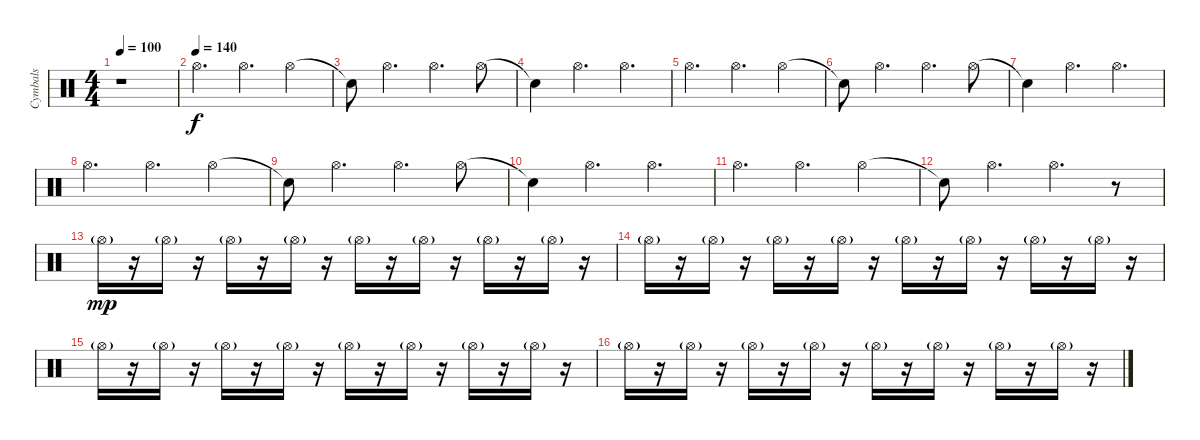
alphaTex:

\track ("Cymbals" "Cymbals") {instrument percussion}
\staff {score}
\articulation defaults
\ts (4 4)
\tempo 100
\clef neutral
\ks c
r.1{dy f} |
\tempo (140)
"Hi-Hat (open)".4{d} "Hi-Hat (open)".4{d} "Hi-Hat (open)".4 |
"Snare (hit)"{t}.8 "Hi-Hat (open)".4{d} "Hi-Hat (open)".4{d} "Hi-Hat (open)".8 |
"Snare (hit)"{t}.4 "Hi-Hat (open)".4{d} "Hi-Hat (open)".4{d} |
"Hi-Hat (open)".4{d} "Hi-Hat (open)".4{d} "Hi-Hat (open)".4 |
"Snare (hit)"{t}.8 "Hi-Hat (open)".4{d} "Hi-Hat (open)".4{d} "Hi-Hat (open)".8 |
"Snare (hit)"{t}.4 "Hi-Hat (open)".4{d} "Hi-Hat (open)".4{d} |
"Hi-Hat (open)".4{d} "Hi-Hat (open)".4{d} "Hi-Hat (open)".4 |
"Snare (hit)"{t}.8 "Hi-Hat (open)".4{d} "Hi-Hat (open)".4{d} "Hi-Hat (open)".8 |
"Snare (hit)"{t}.4 "Hi-Hat (open)".4{d} "Hi-Hat (open)".4{d} |
"Hi-Hat (open)".4{d} "Hi-Hat (open)".4{d} "Hi-Hat (open)".4 |
"Snare (hit)"{t}.8 "Hi-Hat (open)".4{d} "Hi-Hat (open)".4{d} r.8 |
"Hi-Hat (open)"{g}.16{dy mp volume 5} r.16 "Hi-Hat (open)"{g}.16 r.16 "Hi-Hat (open)"{g}.16 r.16 "Hi-Hat (open)"{g}.16 r.16 "Hi-Hat (open)"{g}.16 r.16 "Hi-Hat (open)"{g}.16 r.16 "Hi-Hat (open)"{g}.16 r.16 "Hi-Hat (open)"{g}.16 r.16 |
"Hi-Hat (open)"{g}.16 r.16 "Hi-Hat (open)"{g}.16 r.16 "Hi-Hat (open)"{g}.16 r.16 "Hi-Hat (open)"{g}.16 r.16 "Hi-Hat (open)"{g}.16 r.16 "Hi-Hat (open)"{g}.16 r.16 "Hi-Hat (open)"{g}.16 r.16 "Hi-Hat (open)"{g}.16 r.16 |
"Hi-Hat (open)"{g}.16 r.16 "Hi-Hat (open)"{g}.16 r.16 "Hi-Hat (open)"{g}.16 r.16 "Hi-Hat (open)"{g}.16 r.16 "Hi-Hat (open)"{g}.16 r.16 "Hi-Hat (open)"{g}.16 r.16 "Hi-Hat (open)"{g}.16 r.16 "Hi-Hat (open)"{g}.16 r.16 |
"Hi-Hat (open)"{g}.16 r.16 "Hi-Hat (open)"{g}.16 r.16 "Hi-Hat (open)"{g}.16 r.16 "Hi-Hat (open)"{g}.16 r.16 "Hi-Hat (open)"{g}.16 r.16 "Hi-Hat (open)"{g}.16 r.16 "Hi-Hat (open)"{g}.16 r.16 "Hi-Hat (open)"{g}.16 r.16
